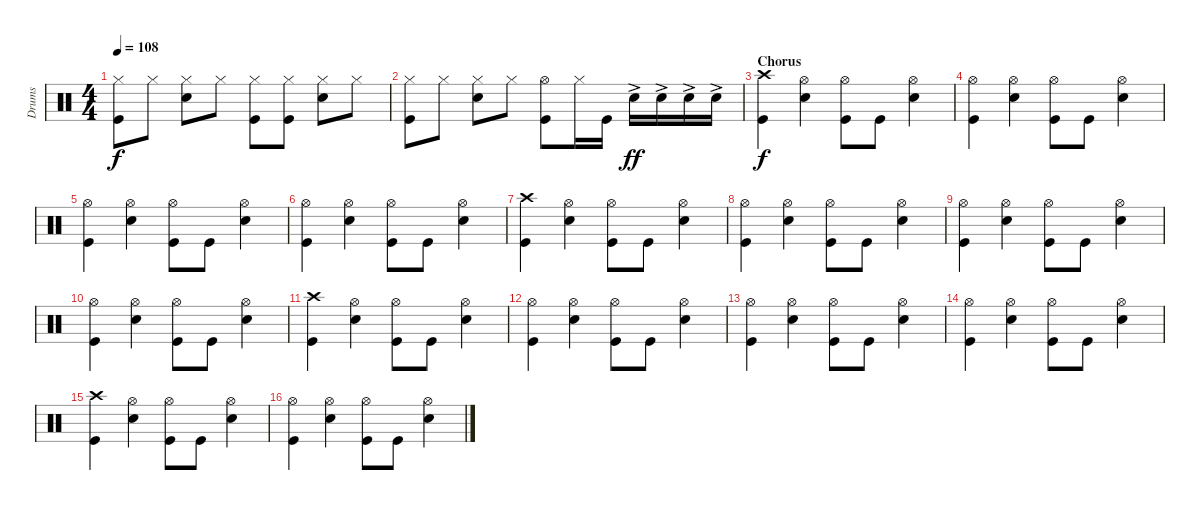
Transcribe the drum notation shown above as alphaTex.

\track ("Drums" "Drums") {instrument percussion}
\staff {score}
\articulation defaults
\ts (4 4)
\tempo 108
\clef neutral
\ks c
("Hi-Hat (closed)" "Kick (hit)").8{dy f} "Hi-Hat (closed)".8 ("Hi-Hat (closed)" "Snare (hit) 2").8 "Hi-Hat (closed)".8 ("Hi-Hat (closed)" "Kick (hit)").8 ("Hi-Hat (closed)" "Kick (hit)").8 ("Hi-Hat (closed)" "Snare (hit) 2").8 "Hi-Hat (closed)".8 |
("Hi-Hat (closed)" "Kick (hit)").8 "Hi-Hat (closed)".8 ("Hi-Hat (closed)" "Snare (hit) 2").8 "Hi-Hat (closed)".8 ("Hi-Hat (open)" "Kick (hit)").8 "Hi-Hat (closed)".16 "Kick (hit)".16 "Snare (hit) 2"{ac}.16{dy ff} "Snare (hit) 2"{ac}.16 "Snare (hit) 2"{ac}.16 "Snare (hit) 2"{ac}.16 |
\section ("" "Chorus")
("Crash high (hit)" "Kick (hit)").4{dy f} ("Hi-Hat (open)" "Snare (hit) 2").4 ("Hi-Hat (open)" "Kick (hit)").8 "Kick (hit)".8 ("Hi-Hat (open)" "Snare (hit) 2").4 |
("Hi-Hat (open)" "Kick (hit)").4 ("Hi-Hat (open)" "Snare (hit) 2").4 ("Hi-Hat (open)" "Kick (hit)").8 "Kick (hit)".8 ("Hi-Hat (open)" "Snare (hit) 2").4 |
("Hi-Hat (open)" "Kick (hit)").4 ("Hi-Hat (open)" "Snare (hit) 2").4 ("Hi-Hat (open)" "Kick (hit)").8 "Kick (hit)".8 ("Hi-Hat (open)" "Snare (hit) 2").4 |
("Hi-Hat (open)" "Kick (hit)").4 ("Hi-Hat (open)" "Snare (hit) 2").4 ("Hi-Hat (open)" "Kick (hit)").8 "Kick (hit)".8 ("Hi-Hat (open)" "Snare (hit) 2").4 |
("Crash high (hit)" "Kick (hit)").4 ("Hi-Hat (open)" "Snare (hit) 2").4 ("Hi-Hat (open)" "Kick (hit)").8 "Kick (hit)".8 ("Hi-Hat (open)" "Snare (hit) 2").4 |
("Hi-Hat (open)" "Kick (hit)").4 ("Hi-Hat (open)" "Snare (hit) 2").4 ("Hi-Hat (open)" "Kick (hit)").8 "Kick (hit)".8 ("Hi-Hat (open)" "Snare (hit) 2").4 |
("Hi-Hat (open)" "Kick (hit)").4 ("Hi-Hat (open)" "Snare (hit) 2").4 ("Hi-Hat (open)" "Kick (hit)").8 "Kick (hit)".8 ("Hi-Hat (open)" "Snare (hit) 2").4 |
("Hi-Hat (open)" "Kick (hit)").4 ("Hi-Hat (open)" "Snare (hit) 2").4 ("Hi-Hat (open)" "Kick (hit)").8 "Kick (hit)".8 ("Hi-Hat (open)" "Snare (hit) 2").4 |
("Crash high (hit)" "Kick (hit)").4 ("Hi-Hat (open)" "Snare (hit) 2").4 ("Hi-Hat (open)" "Kick (hit)").8 "Kick (hit)".8 ("Hi-Hat (open)" "Snare (hit) 2").4 |
("Hi-Hat (open)" "Kick (hit)").4 ("Hi-Hat (open)" "Snare (hit) 2").4 ("Hi-Hat (open)" "Kick (hit)").8 "Kick (hit)".8 ("Hi-Hat (open)" "Snare (hit) 2").4 |
("Hi-Hat (open)" "Kick (hit)").4 ("Hi-Hat (open)" "Snare (hit) 2").4 ("Hi-Hat (open)" "Kick (hit)").8 "Kick (hit)".8 ("Hi-Hat (open)" "Snare (hit) 2").4 |
("Hi-Hat (open)" "Kick (hit)").4 ("Hi-Hat (open)" "Snare (hit) 2").4 ("Hi-Hat (open)" "Kick (hit)").8 "Kick (hit)".8 ("Hi-Hat (open)" "Snare (hit) 2").4 |
("Crash high (hit)" "Kick (hit)").4 ("Hi-Hat (open)" "Snare (hit) 2").4 ("Hi-Hat (open)" "Kick (hit)").8 "Kick (hit)".8 ("Hi-Hat (open)" "Snare (hit) 2").4 |
("Hi-Hat (open)" "Kick (hit)").4 ("Hi-Hat (open)" "Snare (hit) 2").4 ("Hi-Hat (open)" "Kick (hit)").8 "Kick (hit)".8 ("Hi-Hat (open)" "Snare (hit) 2").4
